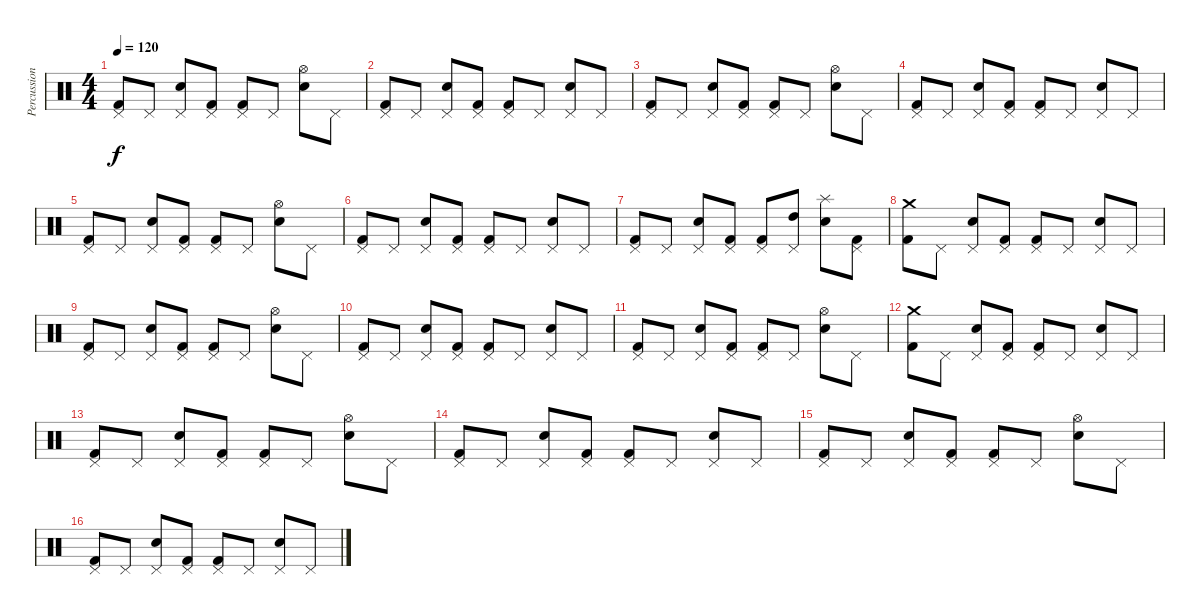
\track ("Percussions" "Percussion") {instrument percussion}
\staff {score}
\articulation defaults
\ts (4 4)
\tempo 120
\clef neutral
\ks c
("Pedal Hi-Hat (hit)" "Kick (hit) 2").8{dy f} "Pedal Hi-Hat (hit)".8 ("Pedal Hi-Hat (hit)" "Snare (hit) 2").8 ("Pedal Hi-Hat (hit)" "Kick (hit) 2").8 ("Pedal Hi-Hat (hit)" "Kick (hit) 2").8 "Pedal Hi-Hat (hit)".8 ("Hi-Hat (open)" "Snare (hit) 2").8 "Pedal Hi-Hat (hit)".8 |
("Pedal Hi-Hat (hit)" "Kick (hit) 2").8 "Pedal Hi-Hat (hit)".8 ("Pedal Hi-Hat (hit)" "Snare (hit) 2").8 ("Pedal Hi-Hat (hit)" "Kick (hit) 2").8 ("Pedal Hi-Hat (hit)" "Kick (hit) 2").8 "Pedal Hi-Hat (hit)".8 ("Pedal Hi-Hat (hit)" "Snare (hit) 2").8 "Pedal Hi-Hat (hit)".8 |
("Pedal Hi-Hat (hit)" "Kick (hit) 2").8 "Pedal Hi-Hat (hit)".8 ("Pedal Hi-Hat (hit)" "Snare (hit) 2").8 ("Pedal Hi-Hat (hit)" "Kick (hit) 2").8 ("Pedal Hi-Hat (hit)" "Kick (hit) 2").8 "Pedal Hi-Hat (hit)".8 ("Hi-Hat (open)" "Snare (hit) 2").8 "Pedal Hi-Hat (hit)".8 |
("Pedal Hi-Hat (hit)" "Kick (hit) 2").8 "Pedal Hi-Hat (hit)".8 ("Pedal Hi-Hat (hit)" "Snare (hit) 2").8 ("Pedal Hi-Hat (hit)" "Kick (hit) 2").8 ("Pedal Hi-Hat (hit)" "Kick (hit) 2").8 "Pedal Hi-Hat (hit)".8 ("Pedal Hi-Hat (hit)" "Snare (hit) 2").8 "Pedal Hi-Hat (hit)".8 |
("Pedal Hi-Hat (hit)" "Kick (hit) 2").8 "Pedal Hi-Hat (hit)".8 ("Pedal Hi-Hat (hit)" "Snare (hit) 2").8 ("Pedal Hi-Hat (hit)" "Kick (hit) 2").8 ("Pedal Hi-Hat (hit)" "Kick (hit) 2").8 "Pedal Hi-Hat (hit)".8 ("Hi-Hat (open)" "Snare (hit) 2").8 "Pedal Hi-Hat (hit)".8 |
("Pedal Hi-Hat (hit)" "Kick (hit) 2").8 "Pedal Hi-Hat (hit)".8 ("Pedal Hi-Hat (hit)" "Snare (hit) 2").8 ("Pedal Hi-Hat (hit)" "Kick (hit) 2").8 ("Pedal Hi-Hat (hit)" "Kick (hit) 2").8 "Pedal Hi-Hat (hit)".8 ("Pedal Hi-Hat (hit)" "Snare (hit) 2").8 "Pedal Hi-Hat (hit)".8 |
("Pedal Hi-Hat (hit)" "Kick (hit) 2").8 "Pedal Hi-Hat (hit)".8 ("Pedal Hi-Hat (hit)" "Snare (hit) 2").8 ("Pedal Hi-Hat (hit)" "Kick (hit) 2").8 ("Pedal Hi-Hat (hit)" "Kick (hit) 2").8 ("Pedal Hi-Hat (hit)" "High Tom (hit)").8 ("Splash (hit)" "Snare (hit) 2").8 ("Pedal Hi-Hat (hit)" "Kick (hit) 2").8 |
("Crash medium (hit)" "Kick (hit) 2").8 "Pedal Hi-Hat (hit)".8 ("Pedal Hi-Hat (hit)" "Snare (hit) 2").8 ("Pedal Hi-Hat (hit)" "Kick (hit) 2").8 ("Pedal Hi-Hat (hit)" "Kick (hit) 2").8 "Pedal Hi-Hat (hit)".8 ("Pedal Hi-Hat (hit)" "Snare (hit) 2").8 "Pedal Hi-Hat (hit)".8 |
("Pedal Hi-Hat (hit)" "Kick (hit) 2").8 "Pedal Hi-Hat (hit)".8 ("Pedal Hi-Hat (hit)" "Snare (hit) 2").8 ("Pedal Hi-Hat (hit)" "Kick (hit) 2").8 ("Pedal Hi-Hat (hit)" "Kick (hit) 2").8 "Pedal Hi-Hat (hit)".8 ("Hi-Hat (open)" "Snare (hit) 2").8 "Pedal Hi-Hat (hit)".8 |
("Pedal Hi-Hat (hit)" "Kick (hit) 2").8 "Pedal Hi-Hat (hit)".8 ("Pedal Hi-Hat (hit)" "Snare (hit) 2").8 ("Pedal Hi-Hat (hit)" "Kick (hit) 2").8 ("Pedal Hi-Hat (hit)" "Kick (hit) 2").8 "Pedal Hi-Hat (hit)".8 ("Pedal Hi-Hat (hit)" "Snare (hit) 2").8 "Pedal Hi-Hat (hit)".8 |
("Pedal Hi-Hat (hit)" "Kick (hit) 2").8 "Pedal Hi-Hat (hit)".8 ("Pedal Hi-Hat (hit)" "Snare (hit) 2").8 ("Pedal Hi-Hat (hit)" "Kick (hit) 2").8 ("Pedal Hi-Hat (hit)" "Kick (hit) 2").8 "Pedal Hi-Hat (hit)".8 ("Hi-Hat (open)" "Snare (hit) 2").8 "Pedal Hi-Hat (hit)".8 |
("Crash medium (hit)" "Kick (hit) 2").8 "Pedal Hi-Hat (hit)".8 ("Pedal Hi-Hat (hit)" "Snare (hit) 2").8 ("Pedal Hi-Hat (hit)" "Kick (hit) 2").8 ("Pedal Hi-Hat (hit)" "Kick (hit) 2").8 "Pedal Hi-Hat (hit)".8 ("Pedal Hi-Hat (hit)" "Snare (hit) 2").8 "Pedal Hi-Hat (hit)".8 |
("Pedal Hi-Hat (hit)" "Kick (hit) 2").8 "Pedal Hi-Hat (hit)".8 ("Pedal Hi-Hat (hit)" "Snare (hit) 2").8 ("Pedal Hi-Hat (hit)" "Kick (hit) 2").8 ("Pedal Hi-Hat (hit)" "Kick (hit) 2").8 "Pedal Hi-Hat (hit)".8 ("Hi-Hat (open)" "Snare (hit) 2").8 "Pedal Hi-Hat (hit)".8 |
("Pedal Hi-Hat (hit)" "Kick (hit) 2").8 "Pedal Hi-Hat (hit)".8 ("Pedal Hi-Hat (hit)" "Snare (hit) 2").8 ("Pedal Hi-Hat (hit)" "Kick (hit) 2").8 ("Pedal Hi-Hat (hit)" "Kick (hit) 2").8 "Pedal Hi-Hat (hit)".8 ("Pedal Hi-Hat (hit)" "Snare (hit) 2").8 "Pedal Hi-Hat (hit)".8 |
("Pedal Hi-Hat (hit)" "Kick (hit) 2").8 "Pedal Hi-Hat (hit)".8 ("Pedal Hi-Hat (hit)" "Snare (hit) 2").8 ("Pedal Hi-Hat (hit)" "Kick (hit) 2").8 ("Pedal Hi-Hat (hit)" "Kick (hit) 2").8 "Pedal Hi-Hat (hit)".8 ("Hi-Hat (open)" "Snare (hit) 2").8 "Pedal Hi-Hat (hit)".8 |
("Pedal Hi-Hat (hit)" "Kick (hit) 2").8 "Pedal Hi-Hat (hit)".8 ("Pedal Hi-Hat (hit)" "Snare (hit) 2").8 ("Pedal Hi-Hat (hit)" "Kick (hit) 2").8 ("Pedal Hi-Hat (hit)" "Kick (hit) 2").8 "Pedal Hi-Hat (hit)".8 ("Pedal Hi-Hat (hit)" "Snare (hit) 2").8 "Pedal Hi-Hat (hit)".8
